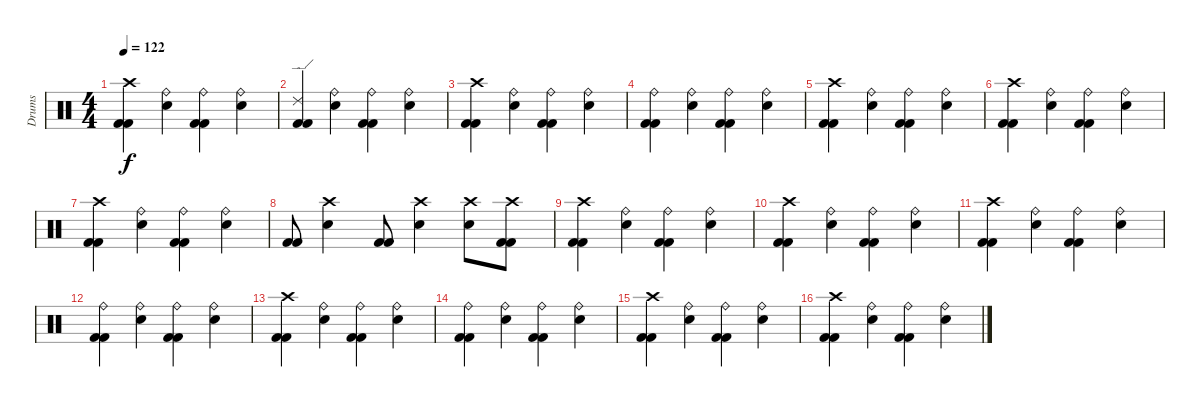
\track ("Drums" "Drums") {instrument percussion}
\staff {score}
\articulation defaults
\ts (4 4)
\tempo 122
\clef neutral
\ks c
("Crash high (hit)" "Kick (hit) 2" "Kick (hit) 2").4{dy f} ("Ride (bell)" "Snare (hit) 2").4 ("Ride (bell)" "Kick (hit) 2" "Kick (hit) 2").4 ("Ride (bell)" "Snare (hit) 2").4 |
("Ride (edge) 2" "Kick (hit) 2" "Kick (hit) 2").4 ("Ride (bell)" "Snare (hit) 2").4 ("Ride (bell)" "Kick (hit) 2" "Kick (hit) 2").4 ("Ride (bell)" "Snare (hit) 2").4 |
("Crash high (hit)" "Kick (hit) 2" "Kick (hit) 2").4 ("Ride (bell)" "Snare (hit) 2").4 ("Ride (bell)" "Kick (hit) 2" "Kick (hit) 2").4 ("Ride (bell)" "Snare (hit) 2").4 |
("Ride (bell)" "Kick (hit) 2" "Kick (hit) 2").4 ("Ride (bell)" "Snare (hit) 2").4 ("Ride (bell)" "Kick (hit) 2" "Kick (hit) 2").4 ("Ride (bell)" "Snare (hit) 2").4 |
("Crash high (hit)" "Kick (hit) 2" "Kick (hit) 2").4 ("Ride (bell)" "Snare (hit) 2").4 ("Ride (bell)" "Kick (hit) 2" "Kick (hit) 2").4 ("Ride (bell)" "Snare (hit) 2").4 |
("Crash high (hit)" "Kick (hit) 2" "Kick (hit) 2").4 ("Ride (bell)" "Snare (hit) 2").4 ("Ride (bell)" "Kick (hit) 2" "Kick (hit) 2").4 ("Ride (bell)" "Snare (hit) 2").4 |
("Crash high (hit)" "Kick (hit) 2" "Kick (hit) 2").4 ("Ride (bell)" "Snare (hit) 2").4 ("Ride (bell)" "Kick (hit) 2" "Kick (hit) 2").4 ("Ride (bell)" "Snare (hit) 2").4 |
("Kick (hit) 2" "Kick (hit) 2").8 ("Crash high (hit)" "Snare (hit) 2").4 ("Kick (hit) 2" "Kick (hit) 2").8 ("Crash high (hit)" "Snare (hit) 2").4 ("Crash high (hit)" "Snare (hit) 2").8 ("Crash high (hit)" "Kick (hit) 2" "Kick (hit) 2").8 |
("Crash high (hit)" "Kick (hit) 2" "Kick (hit) 2").4 ("Ride (bell)" "Snare (hit) 2").4 ("Ride (bell)" "Kick (hit) 2" "Kick (hit) 2").4 ("Ride (bell)" "Snare (hit) 2").4 |
("Crash high (hit)" "Kick (hit) 2" "Kick (hit) 2").4 ("Ride (bell)" "Snare (hit) 2").4 ("Ride (bell)" "Kick (hit) 2" "Kick (hit) 2").4 ("Ride (bell)" "Snare (hit) 2").4 |
("Crash high (hit)" "Kick (hit) 2" "Kick (hit) 2").4 ("Ride (bell)" "Snare (hit) 2").4 ("Ride (bell)" "Kick (hit) 2" "Kick (hit) 2").4 ("Ride (bell)" "Snare (hit) 2").4 |
("Ride (bell)" "Kick (hit) 2" "Kick (hit) 2").4 ("Ride (bell)" "Snare (hit) 2").4 ("Ride (bell)" "Kick (hit) 2" "Kick (hit) 2").4 ("Ride (bell)" "Snare (hit) 2").4 |
("Crash high (hit)" "Kick (hit) 2" "Kick (hit) 2").4 ("Ride (bell)" "Snare (hit) 2").4 ("Ride (bell)" "Kick (hit) 2" "Kick (hit) 2").4 ("Ride (bell)" "Snare (hit) 2").4 |
("Ride (bell)" "Kick (hit) 2" "Kick (hit) 2").4 ("Ride (bell)" "Snare (hit) 2").4 ("Ride (bell)" "Kick (hit) 2" "Kick (hit) 2").4 ("Ride (bell)" "Snare (hit) 2").4 |
("Crash high (hit)" "Kick (hit) 2" "Kick (hit) 2").4 ("Ride (bell)" "Snare (hit) 2").4 ("Ride (bell)" "Kick (hit) 2" "Kick (hit) 2").4 ("Ride (bell)" "Snare (hit) 2").4 |
("Crash high (hit)" "Kick (hit) 2" "Kick (hit) 2").4 ("Ride (bell)" "Snare (hit) 2").4 ("Ride (bell)" "Kick (hit) 2" "Kick (hit) 2").4 ("Ride (bell)" "Snare (hit) 2").4
